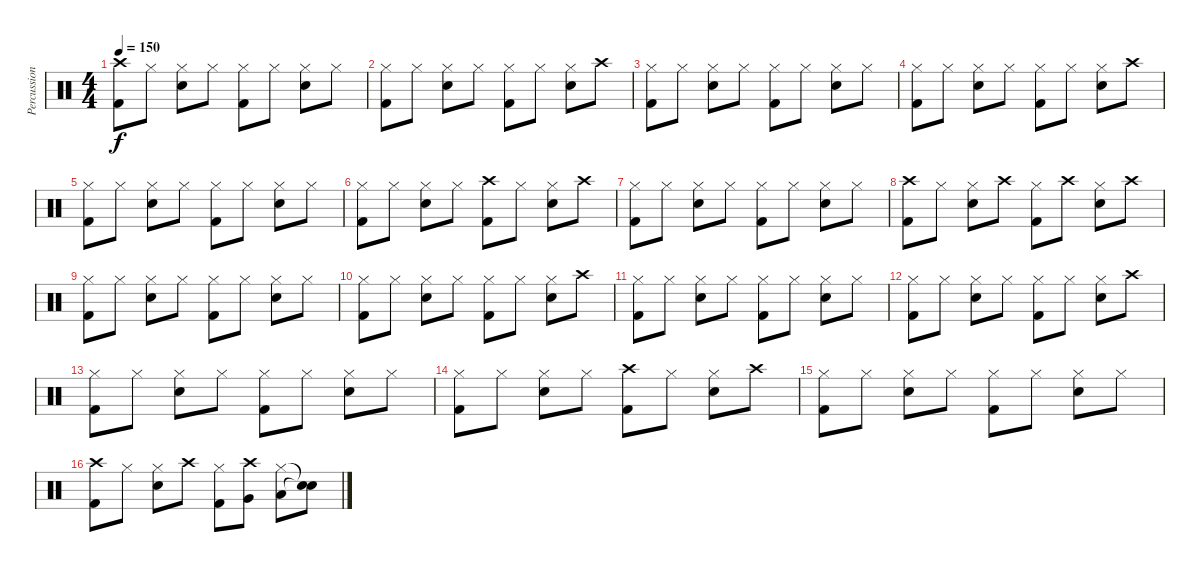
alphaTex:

\track ("Percussion" "Percussion") {instrument percussion}
\staff {score}
\articulation defaults
\ts (4 4)
\tempo 150
\clef neutral
\ks c
("Kick (hit) 2" "Crash high (hit)").8{dy f} "Hi-Hat (closed)".8 ("Snare (hit) 2" "Hi-Hat (closed)").8 "Hi-Hat (closed)".8 ("Kick (hit) 2" "Hi-Hat (closed)").8 "Hi-Hat (closed)".8 ("Snare (hit) 2" "Hi-Hat (closed)").8 "Hi-Hat (closed)".8 |
("Kick (hit) 2" "Hi-Hat (closed)").8 "Hi-Hat (closed)".8 ("Snare (hit) 2" "Hi-Hat (closed)").8 "Hi-Hat (closed)".8 ("Kick (hit) 2" "Hi-Hat (closed)").8 "Hi-Hat (closed)".8 ("Snare (hit) 2" "Hi-Hat (closed)").8 "Crash high (hit)".8 |
("Kick (hit) 2" "Hi-Hat (closed)").8 "Hi-Hat (closed)".8 ("Snare (hit) 2" "Hi-Hat (closed)").8 "Hi-Hat (closed)".8 ("Kick (hit) 2" "Hi-Hat (closed)").8 "Hi-Hat (closed)".8 ("Snare (hit) 2" "Hi-Hat (closed)").8 "Hi-Hat (closed)".8 |
("Kick (hit) 2" "Hi-Hat (closed)").8 "Hi-Hat (closed)".8 ("Snare (hit) 2" "Hi-Hat (closed)").8 "Hi-Hat (closed)".8 ("Kick (hit) 2" "Hi-Hat (closed)").8 "Hi-Hat (closed)".8 ("Snare (hit) 2" "Hi-Hat (closed)").8 "Crash high (hit)".8 |
("Kick (hit) 2" "Hi-Hat (closed)").8 "Hi-Hat (closed)".8 ("Snare (hit) 2" "Hi-Hat (closed)").8 "Hi-Hat (closed)".8 ("Kick (hit) 2" "Hi-Hat (closed)").8 "Hi-Hat (closed)".8 ("Snare (hit) 2" "Hi-Hat (closed)").8 "Hi-Hat (closed)".8 |
("Kick (hit) 2" "Hi-Hat (closed)").8 "Hi-Hat (closed)".8 ("Snare (hit) 2" "Hi-Hat (closed)").8 "Hi-Hat (closed)".8 ("Kick (hit) 2" "Crash high (hit)").8 "Hi-Hat (closed)".8 ("Snare (hit) 2" "Hi-Hat (closed)").8 "Crash high (hit)".8 |
("Kick (hit) 2" "Hi-Hat (closed)").8 "Hi-Hat (closed)".8 ("Snare (hit) 2" "Hi-Hat (closed)").8 "Hi-Hat (closed)".8 ("Kick (hit) 2" "Hi-Hat (closed)").8 "Hi-Hat (closed)".8 ("Snare (hit) 2" "Hi-Hat (closed)").8 "Hi-Hat (closed)".8 |
("Kick (hit) 2" "Crash high (hit)").8 "Hi-Hat (closed)".8 ("Snare (hit) 2" "Hi-Hat (closed)").8 "Crash high (hit)".8 ("Kick (hit) 2" "Hi-Hat (closed)").8 "Crash high (hit)".8 ("Snare (hit) 2" "Hi-Hat (closed)").8 "Crash high (hit)".8 |
("Kick (hit) 2" "Hi-Hat (closed)").8 "Hi-Hat (closed)".8 ("Snare (hit) 2" "Hi-Hat (closed)").8 "Hi-Hat (closed)".8 ("Kick (hit) 2" "Hi-Hat (closed)").8 "Hi-Hat (closed)".8 ("Snare (hit) 2" "Hi-Hat (closed)").8 "Hi-Hat (closed)".8 |
("Kick (hit) 2" "Hi-Hat (closed)").8 "Hi-Hat (closed)".8 ("Snare (hit) 2" "Hi-Hat (closed)").8 "Hi-Hat (closed)".8 ("Kick (hit) 2" "Hi-Hat (closed)").8 "Hi-Hat (closed)".8 ("Snare (hit) 2" "Hi-Hat (closed)").8 "Crash high (hit)".8 |
("Kick (hit) 2" "Hi-Hat (closed)").8 "Hi-Hat (closed)".8 ("Snare (hit) 2" "Hi-Hat (closed)").8 "Hi-Hat (closed)".8 ("Kick (hit) 2" "Hi-Hat (closed)").8 "Hi-Hat (closed)".8 ("Snare (hit) 2" "Hi-Hat (closed)").8 "Hi-Hat (closed)".8 |
("Kick (hit) 2" "Hi-Hat (closed)").8 "Hi-Hat (closed)".8 ("Snare (hit) 2" "Hi-Hat (closed)").8 "Hi-Hat (closed)".8 ("Kick (hit) 2" "Hi-Hat (closed)").8 "Hi-Hat (closed)".8 ("Snare (hit) 2" "Hi-Hat (closed)").8 "Crash high (hit)".8 |
("Kick (hit) 2" "Hi-Hat (closed)").8 "Hi-Hat (closed)".8 ("Snare (hit) 2" "Hi-Hat (closed)").8 "Hi-Hat (closed)".8 ("Kick (hit) 2" "Hi-Hat (closed)").8 "Hi-Hat (closed)".8 ("Snare (hit) 2" "Hi-Hat (closed)").8 "Hi-Hat (closed)".8 |
("Kick (hit) 2" "Hi-Hat (closed)").8 "Hi-Hat (closed)".8 ("Snare (hit) 2" "Hi-Hat (closed)").8 "Hi-Hat (closed)".8 ("Kick (hit) 2" "Crash high (hit)").8 "Hi-Hat (closed)".8 ("Snare (hit) 2" "Hi-Hat (closed)").8 "Crash high (hit)".8 |
("Kick (hit) 2" "Hi-Hat (closed)").8 "Hi-Hat (closed)".8 ("Snare (hit) 2" "Hi-Hat (closed)").8 "Hi-Hat (closed)".8 ("Kick (hit) 2" "Hi-Hat (closed)").8 "Hi-Hat (closed)".8 ("Snare (hit) 2" "Hi-Hat (closed)").8 "Hi-Hat (closed)".8 |
("Kick (hit) 2" "Crash high (hit)").8 "Hi-Hat (closed)".8 ("Snare (hit) 2" "Hi-Hat (closed)").8 "Crash high (hit)".8 ("Kick (hit) 2" "Hi-Hat (closed)").8 ("Very Low Tom (hit)" "Crash high (hit)").8 ("Low Tom (hit)" "Hi-Hat (closed)").8 ("Snare (hit)"{t} "Snare (hit)"{t}).8
